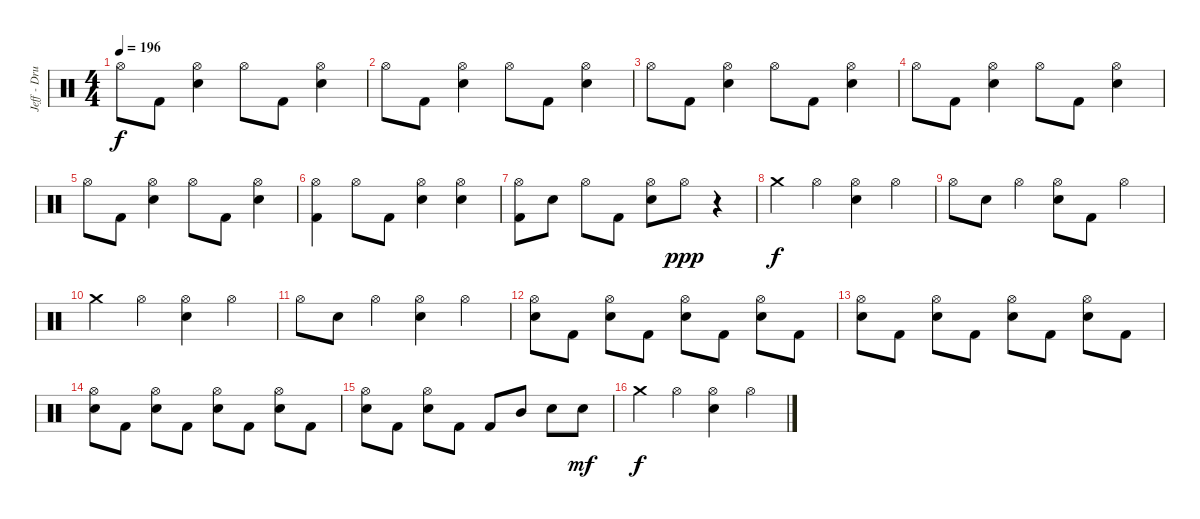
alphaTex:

\track ("Jeff - Drums" "Jeff - Dru") {instrument percussion}
\staff {score}
\articulation defaults
\ts (4 4)
\tempo 196
\clef neutral
\ks c "Hi-Hat (open)".8{dy f} "Kick (hit) 2".8
("Hi-Hat (open)" "Electric Snare (hit)").4 "Hi-Hat (open)".8 "Kick (hit) 2".8 ("Hi-Hat (open)" "Electric Snare (hit)").4 |
"Hi-Hat (open)".8 "Kick (hit) 2".8 ("Hi-Hat (open)" "Electric Snare (hit)").4 "Hi-Hat (open)".8 "Kick (hit) 2".8 ("Hi-Hat (open)" "Electric Snare (hit)").4 |
"Hi-Hat (open)".8 "Kick (hit) 2".8 ("Hi-Hat (open)" "Electric Snare (hit)").4 "Hi-Hat (open)".8 "Kick (hit) 2".8 ("Hi-Hat (open)" "Electric Snare (hit)").4 |
"Hi-Hat (open)".8 "Kick (hit) 2".8 ("Hi-Hat (open)" "Electric Snare (hit)").4 "Hi-Hat (open)".8 "Kick (hit) 2".8 ("Hi-Hat (open)" "Electric Snare (hit)").4 |
"Hi-Hat (open)".8 "Kick (hit) 2".8 ("Hi-Hat (open)" "Electric Snare (hit)").4 "Hi-Hat (open)".8 "Kick (hit) 2".8 ("Hi-Hat (open)" "Electric Snare (hit)").4 |
("Hi-Hat (open)" "Kick (hit) 2").4 "Hi-Hat (open)".8 "Kick (hit) 2".8 ("Hi-Hat (open)" "Electric Snare (hit)").4 ("Hi-Hat (open)" "Electric Snare (hit)").4 |
("Hi-Hat (open)" "Kick (hit) 2").8 "Electric Snare (hit)".8 "Hi-Hat (open)".8 "Kick (hit) 2".8 ("Hi-Hat (open)" "Electric Snare (hit)").8 "Hi-Hat (open)".8{dy ppp} r.4 |
"Crash medium (hit)".4{dy f} "Hi-Hat (open)".4 ("Hi-Hat (open)" "Electric Snare (hit)").4 "Hi-Hat (open)".4 |
"Hi-Hat (open)".8 "Electric Snare (hit)".8 "Hi-Hat (open)".4 ("Hi-Hat (open)" "Electric Snare (hit)").8 "Kick (hit) 2".8 "Hi-Hat (open)".4 |
"Crash medium (hit)".4 "Hi-Hat (open)".4 ("Hi-Hat (open)" "Electric Snare (hit)").4 "Hi-Hat (open)".4 |
"Hi-Hat (open)".8 "Electric Snare (hit)".8 "Hi-Hat (open)".4 ("Hi-Hat (open)" "Electric Snare (hit)").4 "Hi-Hat (open)".4 |
("Hi-Hat (open)" "Electric Snare (hit)").8 "Kick (hit) 2".8 ("Hi-Hat (open)" "Electric Snare (hit)").8 "Kick (hit) 2".8 ("Hi-Hat (open)" "Electric Snare (hit)").8 "Kick (hit) 2".8 ("Hi-Hat (open)" "Electric Snare (hit)").8 "Kick (hit) 2".8 |
("Hi-Hat (open)" "Electric Snare (hit)").8 "Kick (hit) 2".8 ("Hi-Hat (open)" "Electric Snare (hit)").8 "Kick (hit) 2".8 ("Hi-Hat (open)" "Electric Snare (hit)").8 "Kick (hit) 2".8 ("Hi-Hat (open)" "Electric Snare (hit)").8 "Kick (hit) 2".8 |
("Hi-Hat (open)" "Electric Snare (hit)").8 "Kick (hit) 2".8 ("Hi-Hat (open)" "Electric Snare (hit)").8 "Kick (hit) 2".8 ("Hi-Hat (open)" "Electric Snare (hit)").8 "Kick (hit) 2".8 ("Hi-Hat (open)" "Electric Snare (hit)").8 "Kick (hit) 2".8 |
("Hi-Hat (open)" "Electric Snare (hit)").8 "Kick (hit) 2".8 ("Hi-Hat (open)" "Electric Snare (hit)").8 "Kick (hit) 2".8 "Kick (hit) 2".8 "Mid Tom (hit)".8 "Electric Snare (hit)".8 "Electric Snare (hit)".8{dy mf} |
"Crash medium (hit)".4{dy f} "Hi-Hat (open)".4 ("Hi-Hat (open)" "Electric Snare (hit)").4 "Hi-Hat (open)".4
